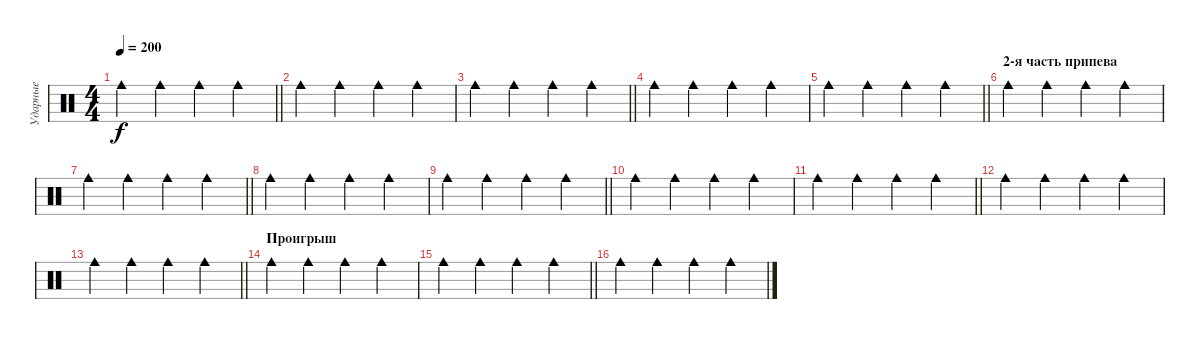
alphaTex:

\track ("Ударные" "Ударные") {instrument percussion}
\staff {score}
\articulation defaults
\ts (4 4)
\tempo 200
\clef neutral
\barLineRight lightlight
\ks c "Cowbell medium (hit)".4{dy f} "Cowbell medium (hit)".4 "Cowbell medium (hit)".4 "Cowbell medium (hit)".4
|
"Cowbell medium (hit)".4 "Cowbell medium (hit)".4 "Cowbell medium (hit)".4 "Cowbell medium (hit)".4 |
\barLineRight lightlight "Cowbell medium (hit)".4 "Cowbell medium (hit)".4 "Cowbell medium (hit)".4 "Cowbell medium (hit)".4
|
"Cowbell medium (hit)".4 "Cowbell medium (hit)".4 "Cowbell medium (hit)".4 "Cowbell medium (hit)".4 |
\barLineRight lightlight "Cowbell medium (hit)".4 "Cowbell medium (hit)".4 "Cowbell medium (hit)".4 "Cowbell medium (hit)".4
|
\section ("" "2-я часть припева")
"Cowbell medium (hit)".4 "Cowbell medium (hit)".4 "Cowbell medium (hit)".4 "Cowbell medium (hit)".4 |
\barLineRight lightlight "Cowbell medium (hit)".4 "Cowbell medium (hit)".4 "Cowbell medium (hit)".4 "Cowbell medium (hit)".4
|
"Cowbell medium (hit)".4 "Cowbell medium (hit)".4 "Cowbell medium (hit)".4 "Cowbell medium (hit)".4 |
\barLineRight lightlight "Cowbell medium (hit)".4 "Cowbell medium (hit)".4 "Cowbell medium (hit)".4 "Cowbell medium (hit)".4
|
"Cowbell medium (hit)".4 "Cowbell medium (hit)".4 "Cowbell medium (hit)".4 "Cowbell medium (hit)".4 |
\barLineRight lightlight "Cowbell medium (hit)".4 "Cowbell medium (hit)".4 "Cowbell medium (hit)".4 "Cowbell medium (hit)".4
|
"Cowbell medium (hit)".4 "Cowbell medium (hit)".4 "Cowbell medium (hit)".4 "Cowbell medium (hit)".4 |
\barLineRight lightlight "Cowbell medium (hit)".4 "Cowbell medium (hit)".4 "Cowbell medium (hit)".4 "Cowbell medium (hit)".4
|
\section ("" "Проигрыш")
"Cowbell medium (hit)".4 "Cowbell medium (hit)".4 "Cowbell medium (hit)".4 "Cowbell medium (hit)".4 |
\barLineRight lightlight "Cowbell medium (hit)".4 "Cowbell medium (hit)".4 "Cowbell medium (hit)".4 "Cowbell medium (hit)".4
|
"Cowbell medium (hit)".4 "Cowbell medium (hit)".4 "Cowbell medium (hit)".4 "Cowbell medium (hit)".4
